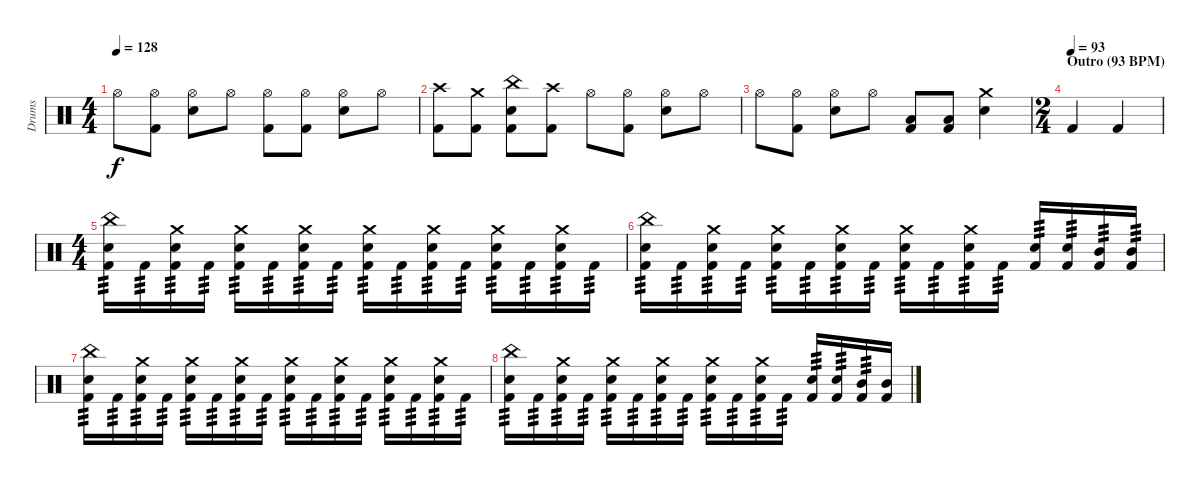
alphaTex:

\track ("Drums" "Drums") {instrument percussion}
\staff {score}
\articulation defaults
\ts (4 4)
\tempo 128
\clef neutral
\ks c "Hi-Hat (open)".8{dy f}
("Hi-Hat (open)" "Kick (hit) 2").8 ("Hi-Hat (open)" "Snare (hit) 2").8 "Hi-Hat (open)".8 ("Hi-Hat (open)" "Kick (hit) 2").8 ("Hi-Hat (open)" "Kick (hit) 2").8 ("Hi-Hat (open)" "Snare (hit) 2").8 "Hi-Hat (open)".8 |
("Crash high (hit)" "Kick (hit) 2").8 ("Crash medium (hit)" "Kick (hit) 2").8 ("China (hit)" "Snare (hit) 2" "Kick (hit) 2").8 ("Crash high (hit)" "Kick (hit) 2").8 "Hi-Hat (open)".8 ("Hi-Hat (open)" "Kick (hit) 2").8 ("Hi-Hat (open)" "Snare (hit) 2").8 "Hi-Hat (open)".8 |
"Hi-Hat (open)".8 ("Hi-Hat (open)" "Kick (hit) 2").8 ("Hi-Hat (open)" "Snare (hit) 2").8 "Hi-Hat (open)".8 ("Low Tom (hit)" "Kick (hit) 2").8 ("Low Floor Tom (hit)" "Kick (hit) 2").8 ("Crash medium (hit)" "Snare (hit) 2").4 |
\ts (2 4)
\section ("" "Outro (93 BPM)")
\tempo (93)
"Kick (hit) 2".4 "Kick (hit) 2".4 |
\ts (4 4)
("China (hit)" "Snare (hit) 2" "Kick (hit) 2").16{tp 3} "Kick (hit) 2".16{tp 3} ("Crash medium (hit)" "Snare (hit) 2" "Kick (hit) 2").16{tp 3} "Kick (hit) 2".16{tp 3} ("Crash medium (hit)" "Snare (hit) 2" "Kick (hit) 2").16{tp 3} "Kick (hit) 2".16{tp 3} ("Crash medium (hit)" "Snare (hit) 2" "Kick (hit) 2").16{tp 3} "Kick (hit) 2".16{tp 3} ("Crash medium (hit)" "Snare (hit) 2" "Kick (hit) 2").16{tp 3} "Kick (hit) 2".16{tp 3} ("Crash medium (hit)" "Snare (hit) 2" "Kick (hit) 2").16{tp 3} "Kick (hit) 2".16{tp 3} ("Crash medium (hit)" "Snare (hit) 2" "Kick (hit) 2").16{tp 3} "Kick (hit) 2".16{tp 3} ("Crash medium (hit)" "Snare (hit) 2" "Kick (hit) 2").16{tp 3} "Kick (hit) 2".16{tp 3} |
("China (hit)" "Snare (hit) 2" "Kick (hit) 2").16{tp 3} "Kick (hit) 2".16{tp 3} ("Crash medium (hit)" "Snare (hit) 2" "Kick (hit) 2").16{tp 3} "Kick (hit) 2".16{tp 3} ("Crash medium (hit)" "Snare (hit) 2" "Kick (hit) 2").16{tp 3} "Kick (hit) 2".16{tp 3} ("Crash medium (hit)" "Snare (hit) 2" "Kick (hit) 2").16{tp 3} "Kick (hit) 2".16{tp 3} ("Crash medium (hit)" "Snare (hit) 2" "Kick (hit) 2").16{tp 3} "Kick (hit) 2".16{tp 3} ("Crash medium (hit)" "Snare (hit) 2" "Kick (hit) 2").16{tp 3} "Kick (hit) 2".16{tp 3} ("Snare (hit) 2" "Kick (hit) 2").16{tp 3} ("Snare (hit) 2" "Kick (hit) 2").16{tp 3} ("Mid Tom (hit)" "Kick (hit) 2").16{tp 3} ("Mid Tom (hit)" "Kick (hit) 2").16{tp 3} |
("China (hit)" "Snare (hit) 2" "Kick (hit) 2").16{tp 3} "Kick (hit) 2".16{tp 3} ("Crash medium (hit)" "Snare (hit) 2" "Kick (hit) 2").16{tp 3} "Kick (hit) 2".16{tp 3} ("Crash medium (hit)" "Snare (hit) 2" "Kick (hit) 2").16{tp 3} "Kick (hit) 2".16{tp 3} ("Crash medium (hit)" "Snare (hit) 2" "Kick (hit) 2").16{tp 3} "Kick (hit) 2".16{tp 3} ("Crash medium (hit)" "Snare (hit) 2" "Kick (hit) 2").16{tp 3} "Kick (hit) 2".16{tp 3} ("Crash medium (hit)" "Snare (hit) 2" "Kick (hit) 2").16{tp 3} "Kick (hit) 2".16{tp 3} ("Crash medium (hit)" "Snare (hit) 2" "Kick (hit) 2").16{tp 3} "Kick (hit) 2".16{tp 3} ("Crash medium (hit)" "Snare (hit) 2" "Kick (hit) 2").16{tp 3} "Kick (hit) 2".16{tp 3} |
("China (hit)" "Snare (hit) 2" "Kick (hit) 2").16{tp 3} "Kick (hit) 2".16{tp 3} ("Crash medium (hit)" "Snare (hit) 2" "Kick (hit) 2").16{tp 3} "Kick (hit) 2".16{tp 3} ("Crash medium (hit)" "Snare (hit) 2" "Kick (hit) 2").16{tp 3} "Kick (hit) 2".16{tp 3} ("Crash medium (hit)" "Snare (hit) 2" "Kick (hit) 2").16{tp 3} "Kick (hit) 2".16{tp 3} ("Crash medium (hit)" "Snare (hit) 2" "Kick (hit) 2").16{tp 3} "Kick (hit) 2".16{tp 3} ("Crash medium (hit)" "Snare (hit) 2" "Kick (hit) 2").16{tp 3} "Kick (hit) 2".16{tp 3} ("Snare (hit) 2" "Kick (hit) 2").16{tp 3} ("Snare (hit) 2" "Kick (hit) 2").16{tp 3} ("Mid Tom (hit)" "Kick (hit) 2").16{tp 3} ("Mid Tom (hit)" "Kick (hit) 2").16
